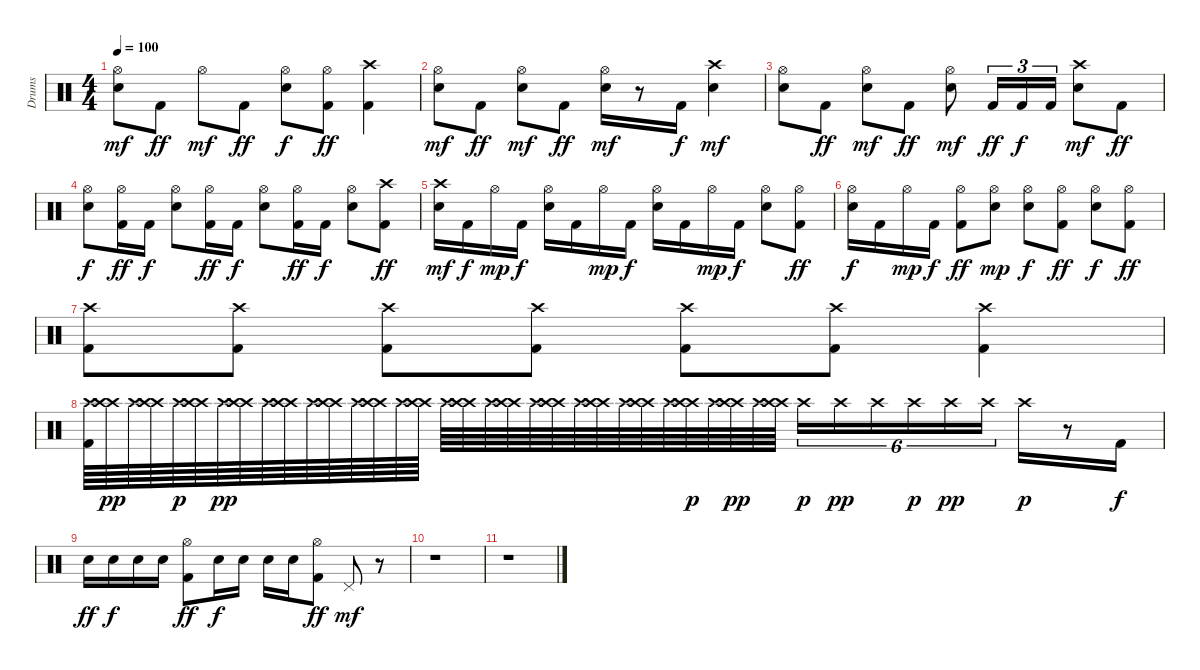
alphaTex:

\track ("Drums" "Drums") {instrument percussion}
\staff {score}
\articulation defaults
\ts (4 4)
\tempo 100
\clef neutral
\ks c
("Hi-Hat (open)" "Electric Snare (hit)").8{dy mf} "Kick (hit) 2".8{dy ff} "Hi-Hat (open)".8{dy mf} "Kick (hit) 2".8{dy ff} ("Hi-Hat (open)" "Electric Snare (hit)").8{dy f} ("Hi-Hat (open)" "Kick (hit) 2").8{dy ff} ("Crash high (hit)" "Kick (hit) 2").4 |
("Hi-Hat (open)" "Electric Snare (hit)").8{dy mf} "Kick (hit) 2".8{dy ff} ("Hi-Hat (open)" "Electric Snare (hit)").8{dy mf} "Kick (hit) 2".8{dy ff} ("Hi-Hat (open)" "Electric Snare (hit)").16{dy mf} r.8 "Kick (hit) 2".16{dy f} ("Crash high (hit)" "Electric Snare (hit)").4{dy mf} |
("Hi-Hat (open)" "Electric Snare (hit)").8 "Kick (hit) 2".8{dy ff} ("Hi-Hat (open)" "Electric Snare (hit)").8{dy mf} "Kick (hit) 2".8{dy ff} ("Hi-Hat (open)" "Electric Snare (hit)").8{dy mf} "Kick (hit) 2".16{tu (3 2) dy ff} "Kick (hit) 2".16{tu (3 2) dy f} "Kick (hit) 2".16{tu (3 2)} ("Crash high (hit)" "Electric Snare (hit)").8{dy mf} "Kick (hit) 2".8{dy ff} |
("Hi-Hat (open)" "Electric Snare (hit)").8{dy f} ("Hi-Hat (open)" "Kick (hit) 2").16{dy ff} "Kick (hit) 2".16{dy f} ("Hi-Hat (open)" "Electric Snare (hit)").8 ("Hi-Hat (open)" "Kick (hit) 2").16{dy ff} "Kick (hit) 2".16{dy f} ("Hi-Hat (open)" "Electric Snare (hit)").8 ("Hi-Hat (open)" "Kick (hit) 2").16{dy ff} "Kick (hit) 2".16{dy f} ("Hi-Hat (open)" "Electric Snare (hit)").8 ("Crash high (hit)" "Kick (hit) 2").8{dy ff} |
("Crash high (hit)" "Electric Snare (hit)").16{dy mf} "Kick (hit) 2".16{dy f} "Hi-Hat (open)".16{dy mp} "Kick (hit) 2".16{dy f} ("Hi-Hat (open)" "Electric Snare (hit)").16 "Kick (hit) 2".16 "Hi-Hat (open)".16{dy mp} "Kick (hit) 2".16{dy f} ("Hi-Hat (open)" "Electric Snare (hit)").16 "Kick (hit) 2".16 "Hi-Hat (open)".16{dy mp} "Kick (hit) 2".16{dy f} ("Hi-Hat (open)" "Electric Snare (hit)").8 ("Hi-Hat (open)" "Kick (hit) 2").8{dy ff} |
("Hi-Hat (open)" "Electric Snare (hit)").16{dy f} "Kick (hit) 2".16 "Hi-Hat (open)".16{dy mp} "Kick (hit) 2".16{dy f} ("Hi-Hat (open)" "Kick (hit) 2").8{dy ff} ("Hi-Hat (open)" "Electric Snare (hit)").8{dy mp} ("Hi-Hat (open)" "Electric Snare (hit)").8{dy f} ("Hi-Hat (open)" "Kick (hit) 2").8{dy ff} ("Hi-Hat (open)" "Electric Snare (hit)").8{dy f} ("Hi-Hat (open)" "Kick (hit) 2").8{dy ff} |
("Crash high (hit)" "Kick (hit) 2").8 ("Crash high (hit)" "Kick (hit) 2").8 ("Crash high (hit)" "Kick (hit) 2").8 ("Crash high (hit)" "Kick (hit) 2").8 ("Crash high (hit)" "Kick (hit) 2").8 ("Crash high (hit)" "Kick (hit) 2").8 ("Crash high (hit)" "Kick (hit) 2").4 |
("Crash high (hit)" "Kick (hit) 2").64 ("Crash high (hit)" "Crash high (hit)").64{dy pp} "Crash high (hit)".64 ("Crash high (hit)" "Crash high (hit)").64 "Crash high (hit)".64{dy p} ("Crash high (hit)" "Crash high (hit)").64 "Crash high (hit)".64{dy pp} ("Crash high (hit)" "Crash high (hit)").64 "Crash high (hit)".64 ("Crash high (hit)" "Crash high (hit)").64 "Crash high (hit)".64 ("Crash high (hit)" "Crash high (hit)").64 "Crash high (hit)".64 ("Crash high (hit)" "Crash high (hit)").64 "Crash high (hit)".64 ("Crash high (hit)" "Crash high (hit)").64 "Crash high (hit)".64 ("Crash high (hit)" "Crash high (hit)").64 "Crash high (hit)".64 ("Crash high (hit)" "Crash high (hit)").64 "Crash high (hit)".64 ("Crash high (hit)" "Crash high (hit)").64 "Crash high (hit)".64 ("Crash high (hit)" "Crash high (hit)").64 "Crash high (hit)".64 ("Crash high (hit)" "Crash high (hit)").64 "Crash high (hit)".64 ("Crash high (hit)" "Crash high (hit)").64{dy p} "Crash high (hit)".64 ("Crash high (hit)" "Crash high (hit)").64{dy pp} "Crash high (hit)".64 ("Crash high (hit)" "Crash high (hit)").64 "Crash high (hit)".16{tu (6 4) dy p} "Crash high (hit)".16{tu (6 4) dy pp} "Crash high (hit)".16{tu (6 4)} "Crash high (hit)".16{tu (6 4) dy p} "Crash high (hit)".16{tu (6 4) dy pp} "Crash high (hit)".16{tu (6 4)} "Crash high (hit)".16{dy p} r.8 "Kick (hit) 2".16{dy f} |
"Electric Snare (hit)".16{dy ff} "Electric Snare (hit)".16{dy f} "Electric Snare (hit)".16 "Electric Snare (hit)".16 ("Hi-Hat (open)" "Kick (hit) 2").8{dy ff} "Electric Snare (hit)".16{dy f} "Electric Snare (hit)".16 "Electric Snare (hit)".16 "Electric Snare (hit)".16 ("Hi-Hat (open)" "Kick (hit) 2").8{dy ff} "Pedal Hi-Hat (hit)".8{dy mf} r.8 |
r.1 |
r.1
